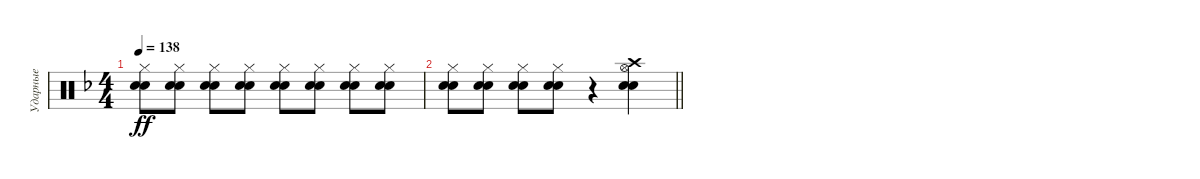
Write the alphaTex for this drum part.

\track ("Ударные" "Ударные") {instrument percussion}
\staff {score}
\articulation defaults
\ts (4 4)
\tempo 138
\clef neutral
\ks f
("Hi-Hat (closed)" "Snare (hit) 2" "Electric Snare (hit)").8{dy ff} ("Hi-Hat (closed)" "Snare (hit) 2" "Electric Snare (hit)").8 ("Hi-Hat (closed)" "Snare (hit) 2" "Electric Snare (hit)").8 ("Hi-Hat (closed)" "Snare (hit) 2" "Electric Snare (hit)").8 ("Hi-Hat (closed)" "Snare (hit) 2" "Electric Snare (hit)").8 ("Hi-Hat (closed)" "Snare (hit) 2" "Electric Snare (hit)").8 ("Hi-Hat (closed)" "Snare (hit) 2" "Electric Snare (hit)").8 ("Hi-Hat (closed)" "Snare (hit) 2" "Electric Snare (hit)").8 |
\barLineRight lightlight
("Hi-Hat (closed)" "Snare (hit) 2" "Electric Snare (hit)").8 ("Hi-Hat (closed)" "Snare (hit) 2" "Electric Snare (hit)").8 ("Hi-Hat (closed)" "Snare (hit) 2" "Electric Snare (hit)").8 ("Hi-Hat (closed)" "Snare (hit) 2" "Electric Snare (hit)").8 r.4 ("Hi-Hat (open)" "Snare (hit) 2" "Electric Snare (hit)" "Crash high (hit)").4
